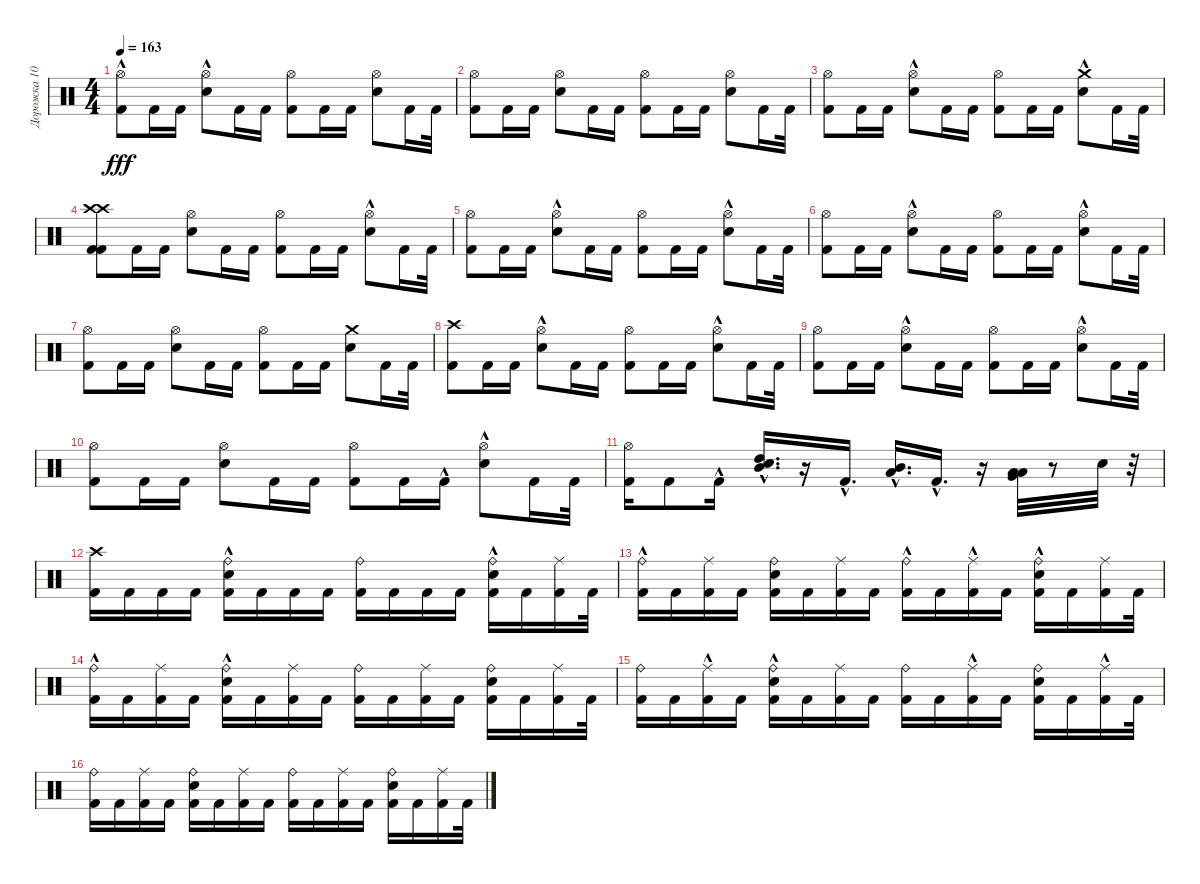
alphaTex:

\track ("Дорожка 10" "Дорожка 10") {instrument percussion}
\staff {score}
\articulation defaults
\ts (4 4)
\tempo 163
\clef neutral
\ks c
("Hi-Hat (open)"{hac} "Kick (hit) 2").8{dy fff} "Kick (hit) 2".16 "Kick (hit) 2".16 ("Hi-Hat (open)"{hac} "Electric Snare (hit)").8 "Kick (hit) 2".16 "Kick (hit) 2".16 ("Hi-Hat (open)" "Kick (hit) 2").8 "Kick (hit) 2".16 "Kick (hit) 2".16 ("Hi-Hat (open)" "Electric Snare (hit)").8 "Kick (hit) 2".16 "Kick (hit) 2".32 |
("Hi-Hat (open)" "Kick (hit) 2").8 "Kick (hit) 2".16 "Kick (hit) 2".16 ("Hi-Hat (open)" "Electric Snare (hit)").8 "Kick (hit) 2".16 "Kick (hit) 2".16 ("Hi-Hat (open)" "Kick (hit) 2").8 "Kick (hit) 2".16 "Kick (hit) 2".16 ("Hi-Hat (open)" "Electric Snare (hit)").8 "Kick (hit) 2".16 "Kick (hit) 2".32 |
("Hi-Hat (open)" "Kick (hit) 2").8 "Kick (hit) 2".16 "Kick (hit) 2".16 ("Hi-Hat (open)" "Electric Snare (hit)"{hac}).8 "Kick (hit) 2".16 "Kick (hit) 2".16 ("Hi-Hat (open)" "Kick (hit) 2").8 "Kick (hit) 2".16 "Kick (hit) 2".16 ("Electric Snare (hit)"{hac} "Crash medium (hit)").8 "Kick (hit) 2".16 "Kick (hit) 2".32 |
("Crash high (hit)" "Kick (hit) 2" "Crash high (hit)" "Kick (hit) 2").8 "Kick (hit) 2".16 "Kick (hit) 2".16 ("Hi-Hat (open)" "Electric Snare (hit)").8 "Kick (hit) 2".16 "Kick (hit) 2".16 ("Hi-Hat (open)" "Kick (hit) 2").8 "Kick (hit) 2".16 "Kick (hit) 2".16 ("Electric Snare (hit)"{hac} "Hi-Hat (open)").8 "Kick (hit) 2".16 "Kick (hit) 2".32 |
("Hi-Hat (open)" "Kick (hit) 2").8 "Kick (hit) 2".16 "Kick (hit) 2".16 ("Hi-Hat (open)" "Electric Snare (hit)"{hac}).8 "Kick (hit) 2".16 "Kick (hit) 2".16 ("Hi-Hat (open)" "Kick (hit) 2").8 "Kick (hit) 2".16 "Kick (hit) 2".16 ("Electric Snare (hit)"{hac} "Hi-Hat (open)").8 "Kick (hit) 2".16 "Kick (hit) 2".32 |
("Hi-Hat (open)" "Kick (hit) 2").8 "Kick (hit) 2".16 "Kick (hit) 2".16 ("Hi-Hat (open)" "Electric Snare (hit)"{hac}).8 "Kick (hit) 2".16 "Kick (hit) 2".16 ("Hi-Hat (open)" "Kick (hit) 2").8 "Kick (hit) 2".16 "Kick (hit) 2".16 ("Hi-Hat (open)" "Electric Snare (hit)"{hac}).8 "Kick (hit) 2".16 "Kick (hit) 2".32 |
("Hi-Hat (open)" "Kick (hit) 2").8 "Kick (hit) 2".16 "Kick (hit) 2".16 ("Hi-Hat (open)" "Electric Snare (hit)").8 "Kick (hit) 2".16 "Kick (hit) 2".16 ("Hi-Hat (open)" "Kick (hit) 2").8 "Kick (hit) 2".16 "Kick (hit) 2".16 ("Electric Snare (hit)" "Crash medium (hit)").8 "Kick (hit) 2".16 "Kick (hit) 2".32 |
("Crash high (hit)" "Kick (hit) 2").8 "Kick (hit) 2".16 "Kick (hit) 2".16 ("Hi-Hat (open)" "Electric Snare (hit)"{hac}).8 "Kick (hit) 2".16 "Kick (hit) 2".16 ("Hi-Hat (open)" "Kick (hit) 2").8 "Kick (hit) 2".16 "Kick (hit) 2".16 ("Hi-Hat (open)" "Electric Snare (hit)"{hac}).8 "Kick (hit) 2".16 "Kick (hit) 2".32 |
("Hi-Hat (open)" "Kick (hit) 2").8 "Kick (hit) 2".16 "Kick (hit) 2".16 ("Hi-Hat (open)" "Electric Snare (hit)"{hac}).8 "Kick (hit) 2".16 "Kick (hit) 2".16 ("Hi-Hat (open)" "Kick (hit) 2").8 "Kick (hit) 2".16 "Kick (hit) 2".16 ("Hi-Hat (open)" "Electric Snare (hit)"{hac}).8 "Kick (hit) 2".16 "Kick (hit) 2".32 |
("Hi-Hat (open)" "Kick (hit) 2").8 "Kick (hit) 2".16 "Kick (hit) 2".16 ("Hi-Hat (open)" "Electric Snare (hit)").8 "Kick (hit) 2".16 "Kick (hit) 2".16 ("Hi-Hat (open)" "Kick (hit) 2").8 "Kick (hit) 2".16 "Kick (hit) 2"{hac}.16 ("Hi-Hat (open)" "Electric Snare (hit)"{hac}).8 "Kick (hit) 2".16 "Kick (hit) 2".32 |
("Hi-Hat (open)" "Kick (hit) 2").16 "Kick (hit) 2".8 "Kick (hit) 2"{hac}.16 ("High Tom (hit)"{hac} "Mid Tom (hit)"{hac} "Electric Snare (hit)"{hac}).16{d} r.16 "Kick (hit) 2"{hac}.16{d} ("Mid Tom (hit)"{hac} "Low Tom (hit)"{hac}).16{d} "Kick (hit) 2"{hac}.16{d} r.16 ("Low Tom (hit)" "Very Low Tom (hit)" "Low Floor Tom (hit)").32 r.8 "Electric Snare (hit)".32 r.32 |
("Kick (hit) 2" "Crash high (hit)").16 "Kick (hit) 2".16 "Kick (hit) 2".16 "Kick (hit) 2".16 ("Kick (hit) 2" "Ride (bell)"{hac} "Electric Snare (hit)").16 "Kick (hit) 2".16 "Kick (hit) 2".16 "Kick (hit) 2".16 ("Kick (hit) 2" "Ride (bell)").16 "Kick (hit) 2".16 "Kick (hit) 2".16 "Kick (hit) 2".16 ("Kick (hit) 2" "Ride (bell)"{hac} "Electric Snare (hit)").16 "Kick (hit) 2".16 ("Kick (hit) 2" "Ride (middle)").16 "Kick (hit) 2".32 |
("Kick (hit) 2" "Ride (bell)"{hac}).16 "Kick (hit) 2".16 ("Kick (hit) 2" "Ride (middle)").16 "Kick (hit) 2".16 ("Kick (hit) 2" "Ride (bell)" "Electric Snare (hit)").16 "Kick (hit) 2".16 ("Kick (hit) 2" "Ride (middle)").16 "Kick (hit) 2".16 ("Kick (hit) 2" "Ride (bell)"{hac}).16 "Kick (hit) 2".16 ("Kick (hit) 2" "Ride (middle)"{hac}).16 "Kick (hit) 2".16 ("Kick (hit) 2" "Ride (bell)"{hac} "Electric Snare (hit)").16 "Kick (hit) 2".16 ("Kick (hit) 2" "Ride (middle)").16 "Kick (hit) 2".32 |
("Kick (hit) 2" "Ride (bell)"{hac}).16 "Kick (hit) 2".16 ("Kick (hit) 2" "Ride (middle)").16 "Kick (hit) 2".16 ("Kick (hit) 2" "Ride (bell)"{hac} "Electric Snare (hit)").16 "Kick (hit) 2".16 ("Kick (hit) 2" "Ride (middle)").16 "Kick (hit) 2".16 ("Kick (hit) 2" "Ride (bell)").16 "Kick (hit) 2".16 ("Kick (hit) 2" "Ride (middle)").16 "Kick (hit) 2".16 ("Kick (hit) 2" "Ride (bell)" "Electric Snare (hit)").16 "Kick (hit) 2".16 ("Kick (hit) 2" "Ride (middle)").16 "Kick (hit) 2".32 |
("Kick (hit) 2" "Ride (bell)").16 "Kick (hit) 2".16 ("Kick (hit) 2" "Ride (middle)"{hac}).16 "Kick (hit) 2".16 ("Kick (hit) 2" "Ride (bell)"{hac} "Electric Snare (hit)").16 "Kick (hit) 2".16 ("Kick (hit) 2" "Ride (middle)").16 "Kick (hit) 2".16 ("Kick (hit) 2" "Ride (bell)").16 "Kick (hit) 2".16 ("Kick (hit) 2" "Ride (middle)"{hac}).16 "Kick (hit) 2".16 ("Kick (hit) 2" "Ride (bell)" "Electric Snare (hit)").16 "Kick (hit) 2".16 ("Kick (hit) 2" "Ride (middle)"{hac}).16 "Kick (hit) 2".32 |
("Kick (hit) 2" "Ride (bell)").16 "Kick (hit) 2".16 ("Kick (hit) 2" "Ride (middle)").16 "Kick (hit) 2".16 ("Kick (hit) 2" "Ride (bell)" "Electric Snare (hit)").16 "Kick (hit) 2".16 ("Kick (hit) 2" "Ride (middle)").16 "Kick (hit) 2".16 ("Kick (hit) 2" "Ride (bell)").16 "Kick (hit) 2".16 ("Kick (hit) 2" "Ride (middle)").16 "Kick (hit) 2".16 ("Kick (hit) 2" "Ride (bell)" "Electric Snare (hit)").16 "Kick (hit) 2".16 ("Kick (hit) 2" "Ride (middle)").16 "Kick (hit) 2".32
